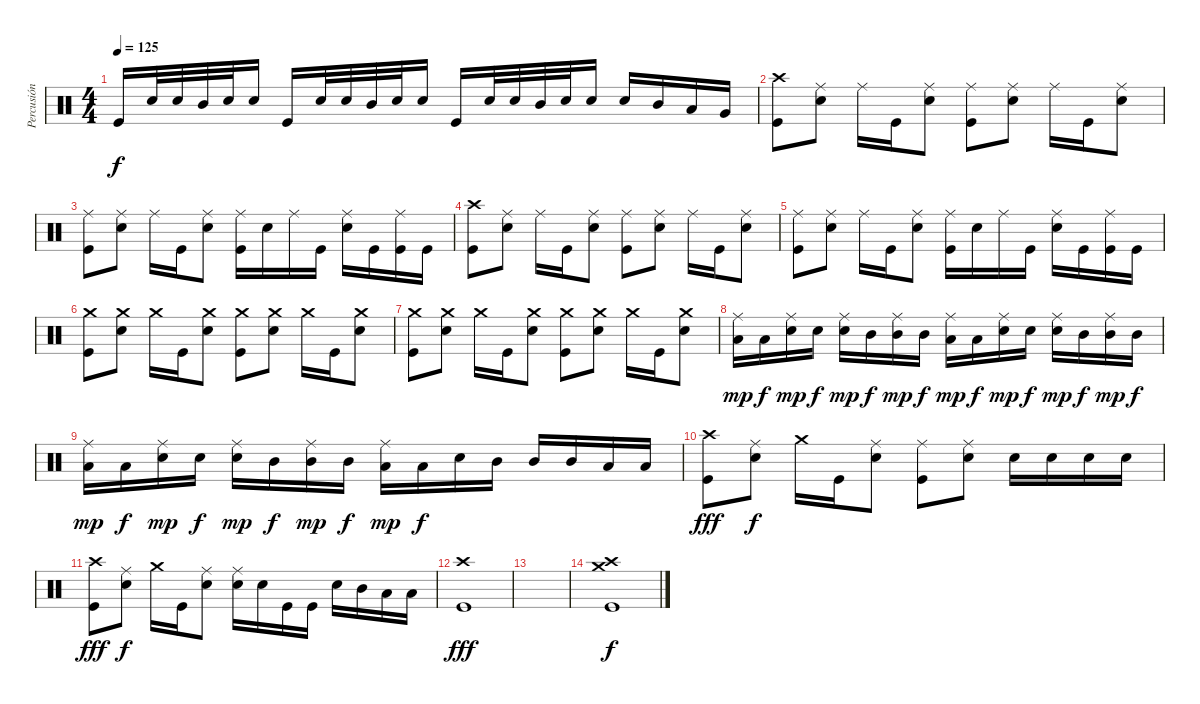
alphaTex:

\track ("Percusión" "Percusión") {instrument percussion}
\staff {score}
\articulation defaults
\ts (4 4)
\tempo 125
\clef neutral
\ks c "Kick (hit)".16{dy f} "Snare (hit) 2".32 "Snare (hit) 2".32 "Mid Tom (hit)".32 "Snare (hit) 2".32 "Snare (hit) 2".16 "Kick (hit)".16 "Snare (hit) 2".32 "Snare (hit) 2".32 "Mid Tom (hit)".32 "Snare (hit) 2".32 "Snare (hit) 2".16 "Kick (hit)".16 "Snare (hit) 2".32 "Snare (hit) 2".32 "Mid Tom (hit)".32 "Snare (hit) 2".32 "Snare (hit) 2".16 "Snare (hit) 2".16 "Mid Tom (hit)".16 "Low Tom (hit)".16 "Very Low Tom (hit)".16
|
("Kick (hit)" "Crash high (hit)").8 ("Snare (hit) 2" "Ride (middle)").8 "Ride (middle)".16 "Kick (hit)".16 ("Snare (hit) 2" "Ride (middle)").8 ("Kick (hit)" "Ride (middle)").8 ("Snare (hit) 2" "Ride (middle)").8 "Ride (middle)".16 "Kick (hit)".16 ("Snare (hit) 2" "Ride (middle)").8 |
("Kick (hit)" "Ride (middle)").8 ("Snare (hit) 2" "Ride (middle)").8 "Ride (middle)".16 "Kick (hit)".16 ("Snare (hit) 2" "Ride (middle)").8 ("Kick (hit)" "Ride (middle)").16 "Snare (hit) 2".16 "Ride (middle)".16 "Kick (hit)".16 ("Snare (hit) 2" "Ride (middle)").16 "Kick (hit)".16 ("Kick (hit)" "Ride (middle)").16 "Kick (hit)".16 |
("Kick (hit)" "Crash high (hit)").8 ("Snare (hit) 2" "Ride (middle)").8 "Ride (middle)".16 "Kick (hit)".16 ("Snare (hit) 2" "Ride (middle)").8 ("Kick (hit)" "Ride (middle)").8 ("Snare (hit) 2" "Ride (middle)").8 "Ride (middle)".16 "Kick (hit)".16 ("Snare (hit) 2" "Ride (middle)").8 |
("Kick (hit)" "Ride (middle)").8 ("Snare (hit) 2" "Ride (middle)").8 "Ride (middle)".16 "Kick (hit)".16 ("Snare (hit) 2" "Ride (middle)").8 ("Kick (hit)" "Ride (middle)").16 "Snare (hit) 2".16 "Ride (middle)".16 "Kick (hit)".16 ("Snare (hit) 2" "Ride (middle)").16 "Kick (hit)".16 ("Kick (hit)" "Ride (middle)").16 "Kick (hit)".16 |
("Kick (hit)" "Crash medium (hit)").8 ("Snare (hit) 2" "Crash medium (hit)").8 "Crash medium (hit)".16 "Kick (hit)".16 ("Snare (hit) 2" "Crash medium (hit)").8 ("Kick (hit)" "Crash medium (hit)").8 ("Snare (hit) 2" "Crash medium (hit)").8 "Crash medium (hit)".16 "Kick (hit)".16 ("Snare (hit) 2" "Crash medium (hit)").8 |
("Kick (hit)" "Crash medium (hit)").8 ("Snare (hit) 2" "Crash medium (hit)").8 "Crash medium (hit)".16 "Kick (hit)".16 ("Snare (hit) 2" "Crash medium (hit)").8 ("Kick (hit)" "Crash medium (hit)").8 ("Snare (hit) 2" "Crash medium (hit)").8 "Crash medium (hit)".16 "Kick (hit)".16 ("Snare (hit) 2" "Crash medium (hit)").8 |
("Low Tom (hit)" "Ride (middle)").16{dy mp} "Low Tom (hit)".16{dy f} ("Snare (hit) 2" "Ride (middle)").16{dy mp} "Snare (hit) 2".16{dy f} ("Snare (hit) 2" "Ride (middle)").16{dy mp} "Mid Tom (hit)".16{dy f} ("Mid Tom (hit)" "Ride (middle)").16{dy mp} "Mid Tom (hit)".16{dy f} ("Low Tom (hit)" "Ride (middle)").16{dy mp} "Low Tom (hit)".16{dy f} ("Snare (hit) 2" "Ride (middle)").16{dy mp} "Snare (hit) 2".16{dy f} ("Snare (hit) 2" "Ride (middle)").16{dy mp} "Mid Tom (hit)".16{dy f} ("Mid Tom (hit)" "Ride (middle)").16{dy mp} "Mid Tom (hit)".16{dy f} |
("Low Tom (hit)" "Ride (middle)").16{dy mp} "Low Tom (hit)".16{dy f} ("Snare (hit) 2" "Ride (middle)").16{dy mp} "Snare (hit) 2".16{dy f} ("Snare (hit) 2" "Ride (middle)").16{dy mp} "Mid Tom (hit)".16{dy f} ("Mid Tom (hit)" "Ride (middle)").16{dy mp} "Mid Tom (hit)".16{dy f} ("Low Tom (hit)" "Ride (middle)").16{dy mp} "Low Tom (hit)".16{dy f} "Snare (hit) 2".16 "Mid Tom (hit)".16 "Mid Tom (hit)".16 "Mid Tom (hit)".16 "Low Tom (hit)".16 "Low Tom (hit)".16 |
("Kick (hit)" "Crash high (hit)").8{dy fff} ("Snare (hit) 2" "Ride (middle)").8{dy f} "Crash medium (hit)".16 "Kick (hit)".16 ("Snare (hit) 2" "Ride (middle)").8 ("Kick (hit)" "Ride (middle)").8 ("Snare (hit) 2" "Ride (middle)").8 "Snare (hit) 2".16 "Snare (hit) 2".16 "Snare (hit) 2".16 "Snare (hit) 2".16 |
("Kick (hit)" "Crash high (hit)").8{dy fff} ("Snare (hit) 2" "Ride (middle)").8{dy f} "Crash medium (hit)".16 "Kick (hit)".16 ("Snare (hit) 2" "Ride (middle)").8 ("Snare (hit) 2" "Ride (middle)").16 "Snare (hit) 2".16 "Kick (hit)".16 "Kick (hit)".16 "Snare (hit) 2".16 "Mid Tom (hit)".16 "Low Tom (hit)".16 "Low Tom (hit)".16 |
("Kick (hit)" "Crash high (hit)").1{dy fff} |
|
("Kick (hit)" "Crash high (hit)" "Crash medium (hit)").1{dy f}
